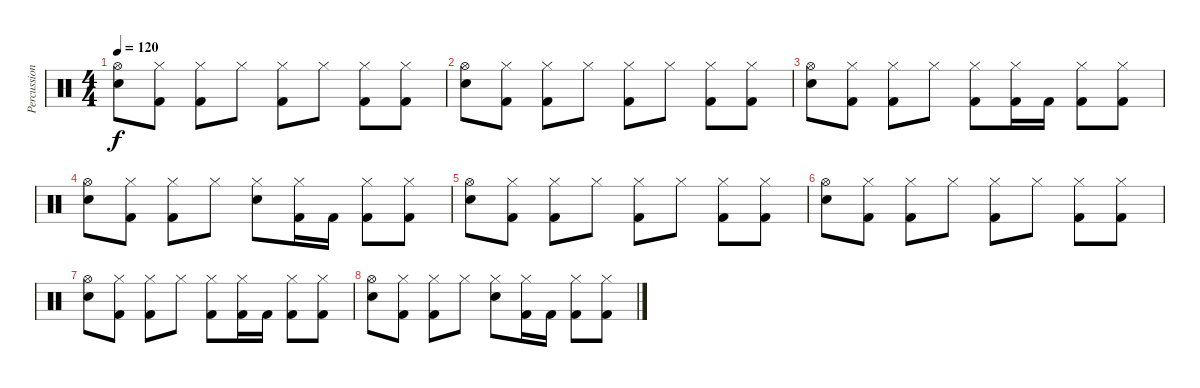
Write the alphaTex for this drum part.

\track ("Percussions" "Percussion") {instrument percussion}
\staff {score}
\articulation defaults
\ts (4 4)
\tempo 120
\clef neutral
\ks c
("Hi-Hat (open)" "Snare (hit) 2").8{dy f} ("Hi-Hat (closed)" "Kick (hit) 2").8 ("Hi-Hat (closed)" "Kick (hit) 2").8 "Hi-Hat (closed)".8 ("Hi-Hat (closed)" "Kick (hit) 2").8 "Hi-Hat (closed)".8 ("Hi-Hat (closed)" "Kick (hit) 2").8 ("Hi-Hat (closed)" "Kick (hit) 2").8 |
("Hi-Hat (open)" "Snare (hit) 2").8 ("Hi-Hat (closed)" "Kick (hit) 2").8 ("Hi-Hat (closed)" "Kick (hit) 2").8 "Hi-Hat (closed)".8 ("Hi-Hat (closed)" "Kick (hit) 2").8 "Hi-Hat (closed)".8 ("Hi-Hat (closed)" "Kick (hit) 2").8 ("Hi-Hat (closed)" "Kick (hit) 2").8 |
("Hi-Hat (open)" "Snare (hit) 2").8 ("Hi-Hat (closed)" "Kick (hit) 2").8 ("Hi-Hat (closed)" "Kick (hit) 2").8 "Hi-Hat (closed)".8 ("Hi-Hat (closed)" "Kick (hit) 2").8 ("Hi-Hat (closed)" "Kick (hit) 2").16 "Kick (hit) 2".16 ("Hi-Hat (closed)" "Kick (hit) 2").8 ("Hi-Hat (closed)" "Kick (hit) 2").8 |
("Hi-Hat (open)" "Snare (hit) 2").8 ("Hi-Hat (closed)" "Kick (hit) 2").8 ("Hi-Hat (closed)" "Kick (hit) 2").8 "Hi-Hat (closed)".8 ("Hi-Hat (closed)" "Snare (hit) 2").8 ("Hi-Hat (closed)" "Kick (hit) 2").16 "Kick (hit) 2".16 ("Hi-Hat (closed)" "Kick (hit) 2").8 ("Hi-Hat (closed)" "Kick (hit) 2").8 |
("Hi-Hat (open)" "Snare (hit) 2").8 ("Hi-Hat (closed)" "Kick (hit) 2").8 ("Hi-Hat (closed)" "Kick (hit) 2").8 "Hi-Hat (closed)".8 ("Hi-Hat (closed)" "Kick (hit) 2").8 "Hi-Hat (closed)".8 ("Hi-Hat (closed)" "Kick (hit) 2").8 ("Hi-Hat (closed)" "Kick (hit) 2").8 |
("Hi-Hat (open)" "Snare (hit) 2").8 ("Hi-Hat (closed)" "Kick (hit) 2").8 ("Hi-Hat (closed)" "Kick (hit) 2").8 "Hi-Hat (closed)".8 ("Hi-Hat (closed)" "Kick (hit) 2").8 "Hi-Hat (closed)".8 ("Hi-Hat (closed)" "Kick (hit) 2").8 ("Hi-Hat (closed)" "Kick (hit) 2").8 |
("Hi-Hat (open)" "Snare (hit) 2").8 ("Hi-Hat (closed)" "Kick (hit) 2").8 ("Hi-Hat (closed)" "Kick (hit) 2").8 "Hi-Hat (closed)".8 ("Hi-Hat (closed)" "Kick (hit) 2").8 ("Hi-Hat (closed)" "Kick (hit) 2").16 "Kick (hit) 2".16 ("Hi-Hat (closed)" "Kick (hit) 2").8 ("Hi-Hat (closed)" "Kick (hit) 2").8 |
("Hi-Hat (open)" "Snare (hit) 2").8 ("Hi-Hat (closed)" "Kick (hit) 2").8 ("Hi-Hat (closed)" "Kick (hit) 2").8 "Hi-Hat (closed)".8 ("Hi-Hat (closed)" "Snare (hit) 2").8 ("Hi-Hat (closed)" "Kick (hit) 2").16 "Kick (hit) 2".16 ("Hi-Hat (closed)" "Kick (hit) 2").8 ("Hi-Hat (closed)" "Kick (hit) 2").8
